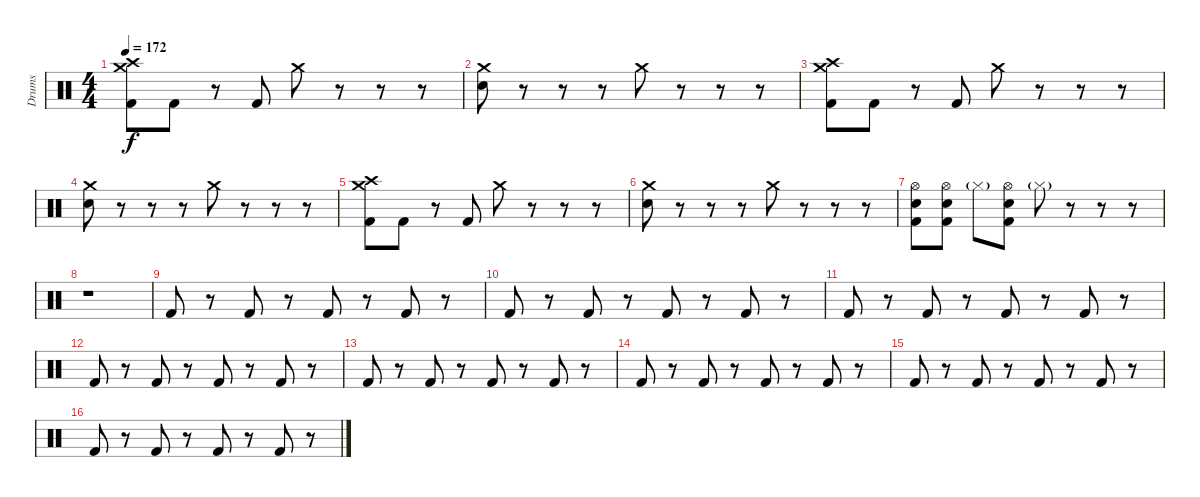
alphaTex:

\track ("Drums" "Drums") {instrument percussion}
\staff {score}
\articulation defaults
\ts (4 4)
\tempo 172
\clef neutral
\ks c
("Crash medium (hit)" "Crash high (hit)" "Kick (hit) 2").8{dy f} "Kick (hit) 2".8 r.8 "Kick (hit) 2".8 "Crash medium (hit)".8 r.8 r.8 r.8 |
("Crash medium (hit)" "Electric Snare (hit)").8 r.8 r.8 r.8 "Crash medium (hit)".8 r.8 r.8 r.8 |
("Crash medium (hit)" "Crash high (hit)" "Kick (hit) 2").8 "Kick (hit) 2".8 r.8 "Kick (hit) 2".8 "Crash medium (hit)".8 r.8 r.8 r.8 |
("Crash medium (hit)" "Electric Snare (hit)").8 r.8 r.8 r.8 "Crash medium (hit)".8 r.8 r.8 r.8 |
("Crash medium (hit)" "Crash high (hit)" "Kick (hit) 2").8 "Kick (hit) 2".8 r.8 "Kick (hit) 2".8 "Crash medium (hit)".8 r.8 r.8 r.8 |
("Crash medium (hit)" "Electric Snare (hit)").8 r.8 r.8 r.8 "Crash medium (hit)".8 r.8 r.8 r.8 |
("Hi-Hat (open)" "Electric Snare (hit)" "Kick (hit) 2").8 ("Hi-Hat (open)" "Electric Snare (hit)" "Kick (hit) 2").8 "Hi-Hat (closed)"{g}.8 ("Hi-Hat (open)" "Electric Snare (hit)" "Kick (hit) 2").8 "Hi-Hat (closed)"{g}.8 r.8 r.8 r.8 |
r.1 |
"Kick (hit) 2".8 r.8 "Kick (hit) 2".8 r.8 "Kick (hit) 2".8 r.8 "Kick (hit) 2".8 r.8 |
"Kick (hit) 2".8 r.8 "Kick (hit) 2".8 r.8 "Kick (hit) 2".8 r.8 "Kick (hit) 2".8 r.8 |
"Kick (hit) 2".8 r.8 "Kick (hit) 2".8 r.8 "Kick (hit) 2".8 r.8 "Kick (hit) 2".8 r.8 |
"Kick (hit) 2".8 r.8 "Kick (hit) 2".8 r.8 "Kick (hit) 2".8 r.8 "Kick (hit) 2".8 r.8 |
"Kick (hit) 2".8 r.8 "Kick (hit) 2".8 r.8 "Kick (hit) 2".8 r.8 "Kick (hit) 2".8 r.8 |
"Kick (hit) 2".8 r.8 "Kick (hit) 2".8 r.8 "Kick (hit) 2".8 r.8 "Kick (hit) 2".8 r.8 |
"Kick (hit) 2".8 r.8 "Kick (hit) 2".8 r.8 "Kick (hit) 2".8 r.8 "Kick (hit) 2".8 r.8 |
"Kick (hit) 2".8 r.8 "Kick (hit) 2".8 r.8 "Kick (hit) 2".8 r.8 "Kick (hit) 2".8 r.8
